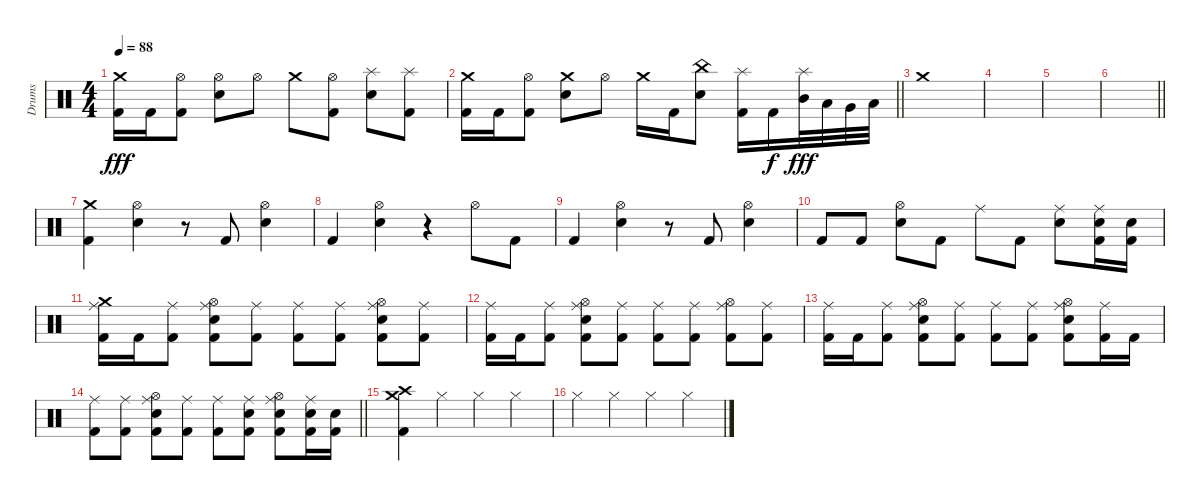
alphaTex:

\track ("Drums" "Drums") {instrument percussion}
\staff {score}
\articulation defaults
\ts (4 4)
\tempo 88
\clef neutral
\ks c
("Kick (hit) 2" "Crash medium (hit)").16{dy fff} "Kick (hit) 2".16 ("Kick (hit) 2" "Hi-Hat (open)").8 ("Electric Snare (hit)" "Hi-Hat (open)").8 "Hi-Hat (open)".8 "Crash medium (hit)".8 ("Kick (hit) 2" "Hi-Hat (open)").8 ("Electric Snare (hit)" "Splash (hit)").8 ("Kick (hit) 2" "Splash (hit)").8 |
\barLineRight lightlight
("Kick (hit) 2" "Crash medium (hit)").16 "Kick (hit) 2".16 ("Kick (hit) 2" "Hi-Hat (open)").8 ("Electric Snare (hit)" "Crash medium (hit)").8 "Hi-Hat (open)".8 "Crash medium (hit)".16 "Kick (hit) 2".16 ("Electric Snare (hit)" "China (hit)").8 ("Kick (hit) 2" "Splash (hit)").16 "Kick (hit) 2".16{dy f} ("Mid Tom (hit)" "Splash (hit)").32{dy fff} "Low Tom (hit)".32 "Very Low Tom (hit)".32 "Low Floor Tom (hit)".32 |
"Crash medium (hit)".1 |
|
|
\barLineRight lightlight
|
("Kick (hit) 2" "Crash medium (hit)").4 ("Electric Snare (hit)" "Hi-Hat (open)").4 r.8 "Kick (hit) 2".8 ("Electric Snare (hit)" "Hi-Hat (open)").4 |
"Kick (hit) 2".4 ("Electric Snare (hit)" "Hi-Hat (open)").4 r.4 "Hi-Hat (open)".8 "Kick (hit) 2".8 |
"Kick (hit) 2".4 ("Electric Snare (hit)" "Hi-Hat (open)").4 r.8 "Kick (hit) 2".8 ("Electric Snare (hit)" "Hi-Hat (open)").4 |
"Kick (hit) 2".8 "Kick (hit) 2".8 ("Electric Snare (hit)" "Hi-Hat (open)").8 "Kick (hit) 2".8 "Ride (middle)".8 "Kick (hit) 2".8 ("Electric Snare (hit)" "Ride (middle)").8 ("Kick (hit) 2" "Electric Snare (hit)" "Ride (middle)").16 ("Kick (hit) 2" "Electric Snare (hit)").16 |
("Kick (hit) 2" "Ride (middle)" "Crash medium (hit)").16 "Kick (hit) 2".16 ("Kick (hit) 2" "Ride (middle)").8 ("Kick (hit) 2" "Electric Snare (hit)" "Ride (middle)" "Hi-Hat (open)").8 ("Kick (hit) 2" "Ride (middle)").8 ("Kick (hit) 2" "Ride (middle)").8 ("Kick (hit) 2" "Ride (middle)").8 ("Kick (hit) 2" "Electric Snare (hit)" "Ride (middle)" "Hi-Hat (open)").8 ("Kick (hit) 2" "Ride (middle)").8 |
("Kick (hit) 2" "Ride (middle)").16 "Kick (hit) 2".16 ("Kick (hit) 2" "Ride (middle)").8 ("Kick (hit) 2" "Electric Snare (hit)" "Ride (middle)" "Hi-Hat (open)").8 ("Kick (hit) 2" "Ride (middle)").8 ("Kick (hit) 2" "Ride (middle)").8 ("Kick (hit) 2" "Ride (middle)").8 ("Kick (hit) 2" "Ride (middle)" "Hi-Hat (open)").8 ("Kick (hit) 2" "Ride (middle)").8 |
("Kick (hit) 2" "Ride (middle)").16 "Kick (hit) 2".16 ("Kick (hit) 2" "Ride (middle)").8 ("Kick (hit) 2" "Electric Snare (hit)" "Ride (middle)" "Hi-Hat (open)").8 ("Kick (hit) 2" "Ride (middle)").8 ("Kick (hit) 2" "Ride (middle)").8 ("Kick (hit) 2" "Ride (middle)").8 ("Kick (hit) 2" "Electric Snare (hit)" "Ride (middle)" "Hi-Hat (open)").8 ("Kick (hit) 2" "Ride (middle)").16 "Kick (hit) 2".16 |
\barLineRight lightlight
("Kick (hit) 2" "Ride (middle)").8 ("Kick (hit) 2" "Ride (middle)").8 ("Kick (hit) 2" "Electric Snare (hit)" "Ride (middle)" "Hi-Hat (open)").8 ("Kick (hit) 2" "Ride (middle)").8 ("Kick (hit) 2" "Ride (middle)").8 ("Kick (hit) 2" "Electric Snare (hit)" "Ride (middle)").8 ("Kick (hit) 2" "Electric Snare (hit)" "Ride (middle)" "Hi-Hat (open)").8 ("Kick (hit) 2" "Electric Snare (hit)" "Ride (middle)").16 ("Kick (hit) 2" "Electric Snare (hit)").16 |
("Kick (hit) 2" "Crash high (hit)" "Crash medium (hit)").4 "Hi-Hat (closed)".4 "Hi-Hat (closed)".4 "Hi-Hat (closed)".4 |
"Hi-Hat (closed)".4 "Hi-Hat (closed)".4 "Hi-Hat (closed)".4 "Hi-Hat (closed)".4
